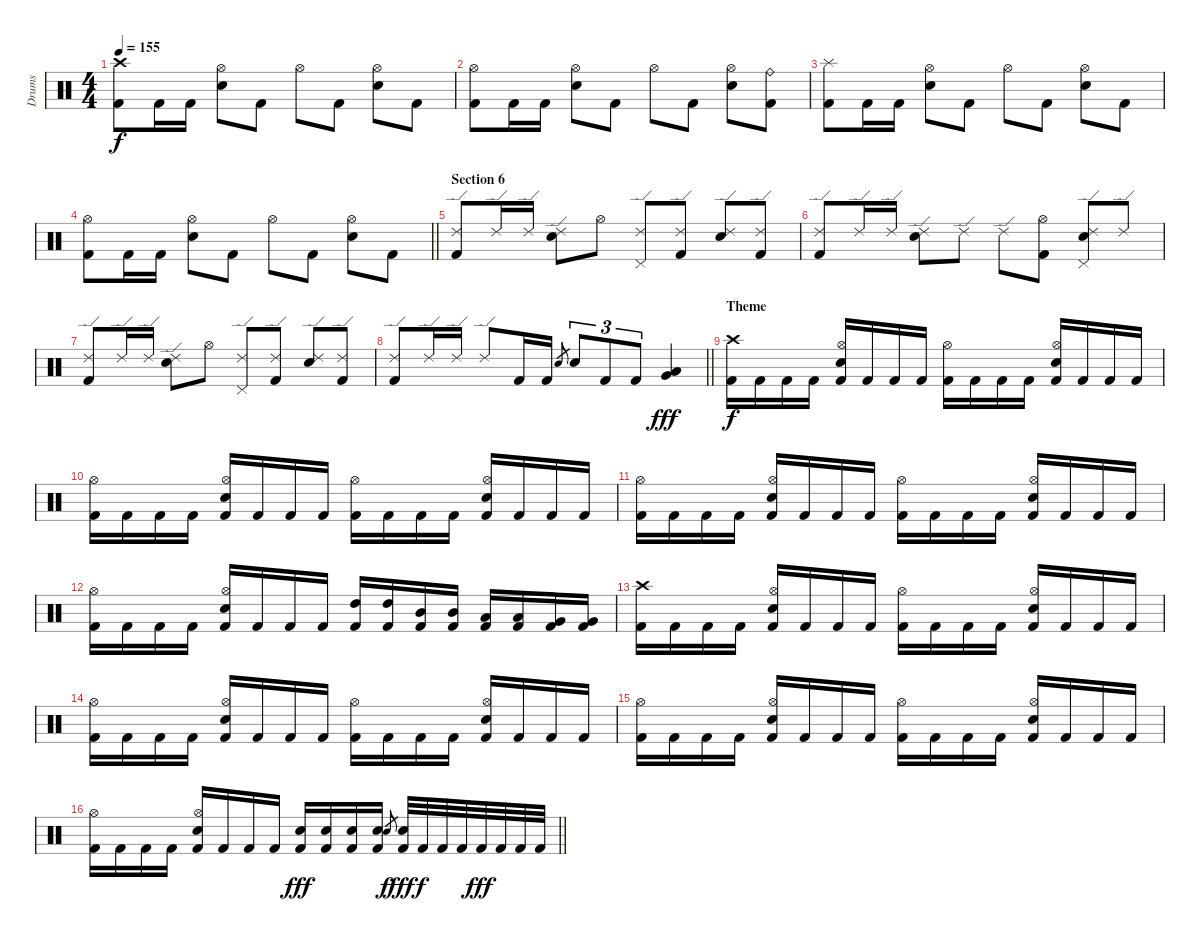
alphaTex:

\track ("Drums" "Drums") {instrument percussion}
\staff {score}
\articulation defaults
\ts (4 4)
\tempo 155
\clef neutral
\ks c
("Crash high (hit)" "Kick (hit) 2").8{dy f} "Kick (hit) 2".16 "Kick (hit) 2".16 ("Hi-Hat (open)" "Electric Snare (hit)").8 "Kick (hit) 2".8 "Hi-Hat (open)".8 "Kick (hit) 2".8 ("Hi-Hat (open)" "Electric Snare (hit)").8 "Kick (hit) 2".8 |
("Hi-Hat (open)" "Kick (hit) 2").8 "Kick (hit) 2".16 "Kick (hit) 2".16 ("Hi-Hat (open)" "Electric Snare (hit)").8 "Kick (hit) 2".8 "Hi-Hat (open)".8 "Kick (hit) 2".8 ("Hi-Hat (open)" "Electric Snare (hit)").8 ("Ride (bell)" "Kick (hit) 2").8 |
("Splash (hit)" "Kick (hit) 2").8 "Kick (hit) 2".16 "Kick (hit) 2".16 ("Hi-Hat (open)" "Electric Snare (hit)").8 "Kick (hit) 2".8 "Hi-Hat (open)".8 "Kick (hit) 2".8 ("Hi-Hat (open)" "Electric Snare (hit)").8 "Kick (hit) 2".8 |
\barLineRight lightlight
("Hi-Hat (open)" "Kick (hit) 2").8 "Kick (hit) 2".16 "Kick (hit) 2".16 ("Hi-Hat (open)" "Electric Snare (hit)").8 "Kick (hit) 2".8 "Hi-Hat (open)".8 "Kick (hit) 2".8 ("Hi-Hat (open)" "Electric Snare (hit)").8 "Kick (hit) 2".8 |
\section ("" "Section 6")
("Ride (edge) 2" "Kick (hit) 2").8 "Ride (edge) 2".16 "Ride (edge) 2".16 ("Ride (edge) 2" "Electric Snare (hit)").8 "Hi-Hat (open)".8 ("Ride (edge) 2" "Pedal Hi-Hat (hit)").8 ("Ride (edge) 2" "Kick (hit) 2").8 ("Ride (edge) 2" "Electric Snare (hit)").8 ("Ride (edge) 2" "Kick (hit) 2").8 |
("Ride (edge) 2" "Kick (hit) 2").8 "Ride (edge) 2".16 "Ride (edge) 2".16 ("Ride (edge) 2" "Electric Snare (hit)").8 "Ride (edge) 2".8 "Ride (edge) 2".8 ("Hi-Hat (open)" "Kick (hit) 2").8 ("Ride (edge) 2" "Pedal Hi-Hat (hit)" "Electric Snare (hit)").8 "Ride (edge) 2".8 |
("Ride (edge) 2" "Kick (hit) 2").8 "Ride (edge) 2".16 "Ride (edge) 2".16 ("Ride (edge) 2" "Electric Snare (hit)").8 "Hi-Hat (open)".8 ("Ride (edge) 2" "Pedal Hi-Hat (hit)").8 ("Ride (edge) 2" "Kick (hit) 2").8 ("Ride (edge) 2" "Electric Snare (hit)").8 ("Ride (edge) 2" "Kick (hit) 2").8 |
\barLineRight lightlight
("Ride (edge) 2" "Kick (hit) 2").8 "Ride (edge) 2".16 "Ride (edge) 2".16 "Ride (edge) 2".8 "Kick (hit) 2".16 "Kick (hit) 2".16 "Electric Snare (hit)".8{gr} "Electric Snare (hit)".8{tu (3 2)} "Kick (hit) 2".8{tu (3 2)} "Kick (hit) 2".8{tu (3 2)} ("Low Tom (hit)" "Very Low Tom (hit)").4{dy fff} |
\section ("" "Theme")
("Crash high (hit)" "Kick (hit) 2").16{dy f} "Kick (hit) 2".16 "Kick (hit) 2".16 "Kick (hit) 2".16 ("Hi-Hat (open)" "Electric Snare (hit)" "Kick (hit) 2").16 "Kick (hit) 2".16 "Kick (hit) 2".16 "Kick (hit) 2".16 ("Hi-Hat (open)" "Kick (hit) 2").16 "Kick (hit) 2".16 "Kick (hit) 2".16 "Kick (hit) 2".16 ("Hi-Hat (open)" "Electric Snare (hit)" "Kick (hit) 2").16 "Kick (hit) 2".16 "Kick (hit) 2".16 "Kick (hit) 2".16 |
("Hi-Hat (open)" "Kick (hit) 2").16 "Kick (hit) 2".16 "Kick (hit) 2".16 "Kick (hit) 2".16 ("Hi-Hat (open)" "Electric Snare (hit)" "Kick (hit) 2").16 "Kick (hit) 2".16 "Kick (hit) 2".16 "Kick (hit) 2".16 ("Hi-Hat (open)" "Kick (hit) 2").16 "Kick (hit) 2".16 "Kick (hit) 2".16 "Kick (hit) 2".16 ("Hi-Hat (open)" "Electric Snare (hit)" "Kick (hit) 2").16 "Kick (hit) 2".16 "Kick (hit) 2".16 "Kick (hit) 2".16 |
("Hi-Hat (open)" "Kick (hit) 2").16 "Kick (hit) 2".16 "Kick (hit) 2".16 "Kick (hit) 2".16 ("Hi-Hat (open)" "Electric Snare (hit)" "Kick (hit) 2").16 "Kick (hit) 2".16 "Kick (hit) 2".16 "Kick (hit) 2".16 ("Hi-Hat (open)" "Kick (hit) 2").16 "Kick (hit) 2".16 "Kick (hit) 2".16 "Kick (hit) 2".16 ("Hi-Hat (open)" "Electric Snare (hit)" "Kick (hit) 2").16 "Kick (hit) 2".16 "Kick (hit) 2".16 "Kick (hit) 2".16 |
("Hi-Hat (open)" "Kick (hit) 2").16 "Kick (hit) 2".16 "Kick (hit) 2".16 "Kick (hit) 2".16 ("Hi-Hat (open)" "Electric Snare (hit)" "Kick (hit) 2").16 "Kick (hit) 2".16 "Kick (hit) 2".16 "Kick (hit) 2".16 ("High Tom (hit)" "Kick (hit) 2").16 ("High Tom (hit)" "Kick (hit) 2").16 ("Mid Tom (hit)" "Kick (hit) 2").16 ("Mid Tom (hit)" "Kick (hit) 2").16 ("Low Tom (hit)" "Kick (hit) 2").16 ("Low Tom (hit)" "Kick (hit) 2").16 ("Very Low Tom (hit)" "Kick (hit) 2").16 ("Very Low Tom (hit)" "Kick (hit) 2").16 |
("Crash high (hit)" "Kick (hit) 2").16 "Kick (hit) 2".16 "Kick (hit) 2".16 "Kick (hit) 2".16 ("Hi-Hat (open)" "Electric Snare (hit)" "Kick (hit) 2").16 "Kick (hit) 2".16 "Kick (hit) 2".16 "Kick (hit) 2".16 ("Hi-Hat (open)" "Kick (hit) 2").16 "Kick (hit) 2".16 "Kick (hit) 2".16 "Kick (hit) 2".16 ("Hi-Hat (open)" "Electric Snare (hit)" "Kick (hit) 2").16 "Kick (hit) 2".16 "Kick (hit) 2".16 "Kick (hit) 2".16 |
("Hi-Hat (open)" "Kick (hit) 2").16 "Kick (hit) 2".16 "Kick (hit) 2".16 "Kick (hit) 2".16 ("Hi-Hat (open)" "Electric Snare (hit)" "Kick (hit) 2").16 "Kick (hit) 2".16 "Kick (hit) 2".16 "Kick (hit) 2".16 ("Hi-Hat (open)" "Kick (hit) 2").16 "Kick (hit) 2".16 "Kick (hit) 2".16 "Kick (hit) 2".16 ("Hi-Hat (open)" "Electric Snare (hit)" "Kick (hit) 2").16 "Kick (hit) 2".16 "Kick (hit) 2".16 "Kick (hit) 2".16 |
("Hi-Hat (open)" "Kick (hit) 2").16 "Kick (hit) 2".16 "Kick (hit) 2".16 "Kick (hit) 2".16 ("Hi-Hat (open)" "Electric Snare (hit)" "Kick (hit) 2").16 "Kick (hit) 2".16 "Kick (hit) 2".16 "Kick (hit) 2".16 ("Hi-Hat (open)" "Kick (hit) 2").16 "Kick (hit) 2".16 "Kick (hit) 2".16 "Kick (hit) 2".16 ("Hi-Hat (open)" "Electric Snare (hit)" "Kick (hit) 2").16 "Kick (hit) 2".16 "Kick (hit) 2".16 "Kick (hit) 2".16 |
\barLineRight lightlight
("Hi-Hat (open)" "Kick (hit) 2").16 "Kick (hit) 2".16 "Kick (hit) 2".16 "Kick (hit) 2".16 ("Hi-Hat (open)" "Electric Snare (hit)" "Kick (hit) 2").16 "Kick (hit) 2".16 "Kick (hit) 2".16 "Kick (hit) 2".16 ("Electric Snare (hit)" "Kick (hit) 2").16{dy fff} ("Electric Snare (hit)" "Kick (hit) 2").16 ("Electric Snare (hit)" "Kick (hit) 2").16 ("Electric Snare (hit)" "Kick (hit) 2").16 "Electric Snare (hit)".8{gr dy f} ("Electric Snare (hit)" "Kick (hit) 2").32{dy fff} "Kick (hit) 2".32{dy f} "Kick (hit) 2".32 "Kick (hit) 2".32 "Kick (hit) 2".32{dy fff} "Kick (hit) 2".32 "Kick (hit) 2".32 "Kick (hit) 2".32
